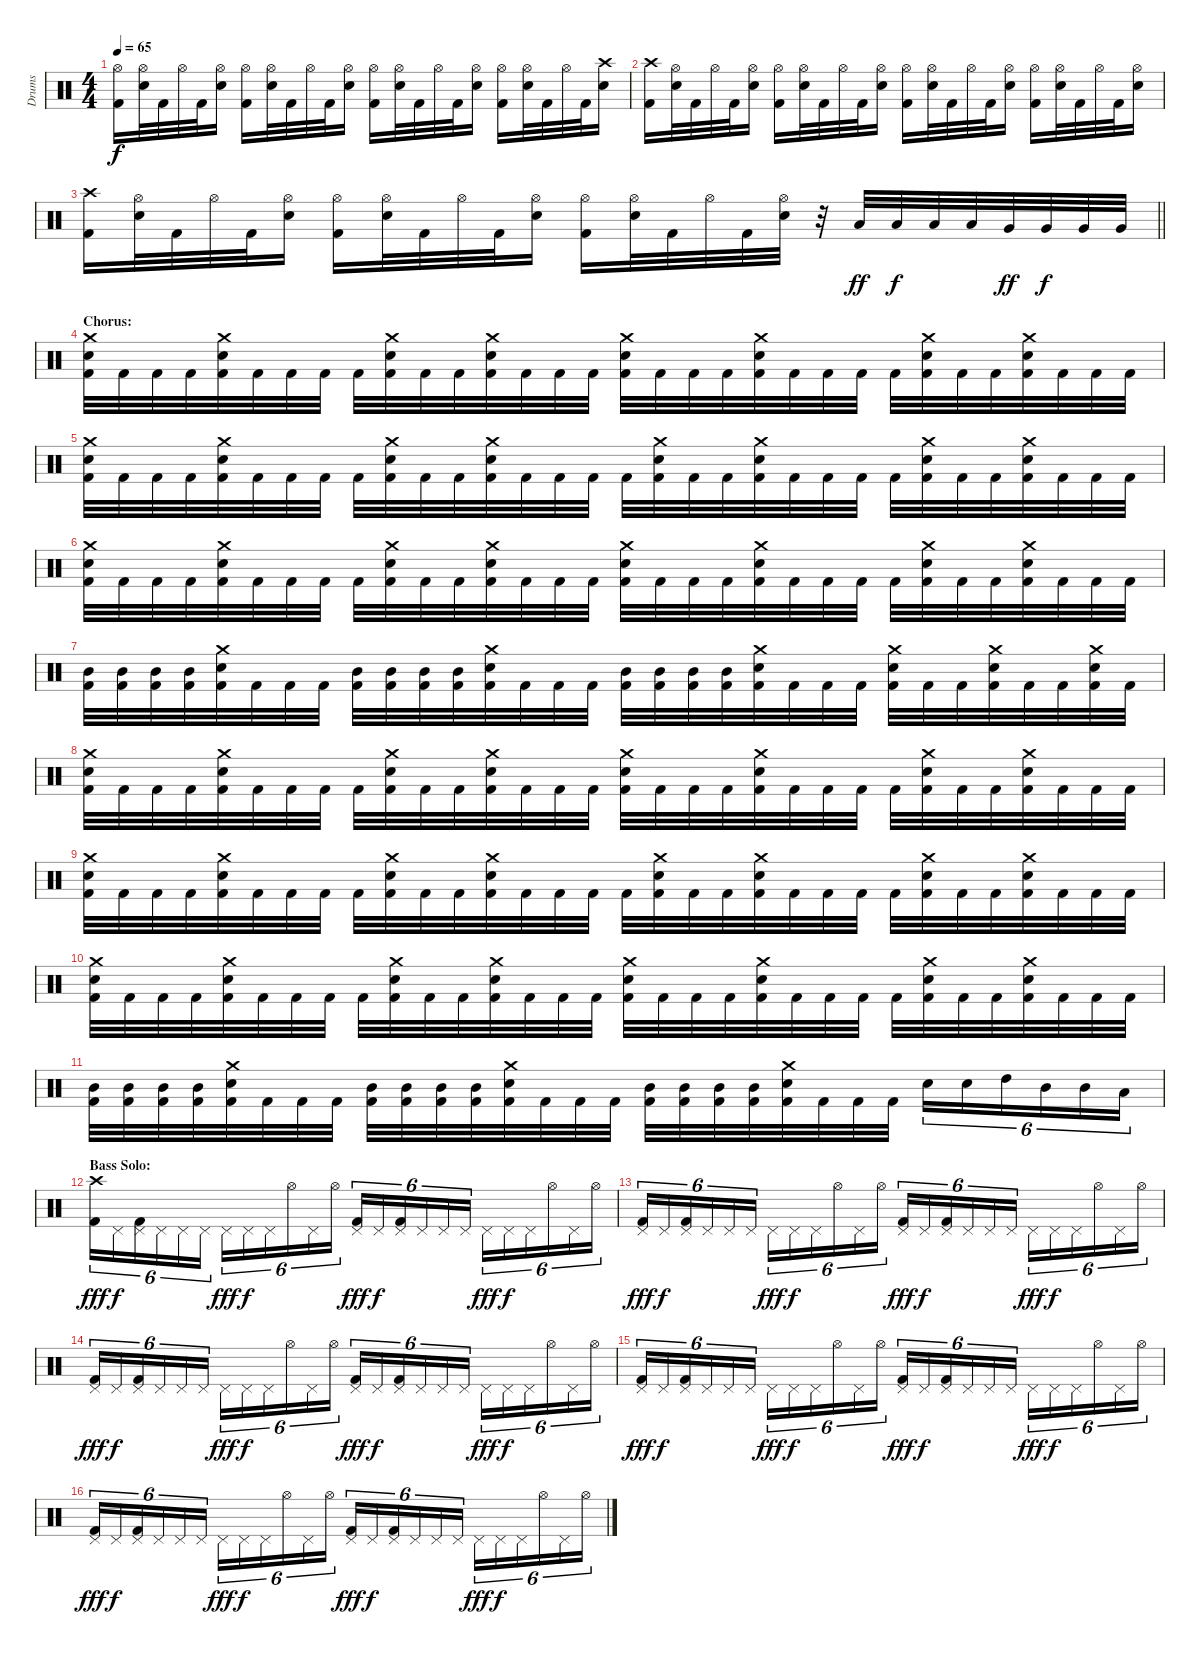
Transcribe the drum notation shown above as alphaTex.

\track ("Drums" "Drums") {instrument percussion}
\staff {score}
\articulation defaults
\ts (4 4)
\tempo 65
\clef neutral
\ks c
("Hi-Hat (open)" "Kick (hit) 2").16{dy f} ("Hi-Hat (open)" "Snare (hit) 2").32 "Kick (hit) 2".32 "Hi-Hat (open)".32 "Kick (hit) 2".32 ("Hi-Hat (open)" "Snare (hit) 2").16 ("Hi-Hat (open)" "Kick (hit) 2").16 ("Hi-Hat (open)" "Snare (hit) 2").32 "Kick (hit) 2".32 "Hi-Hat (open)".32 "Kick (hit) 2".32 ("Hi-Hat (open)" "Snare (hit) 2").16 ("Hi-Hat (open)" "Kick (hit) 2").16 ("Hi-Hat (open)" "Snare (hit) 2").32 "Kick (hit) 2".32 "Hi-Hat (open)".32 "Kick (hit) 2".32 ("Hi-Hat (open)" "Snare (hit) 2").16 ("Hi-Hat (open)" "Kick (hit) 2").16 ("Hi-Hat (open)" "Snare (hit) 2").32 "Kick (hit) 2".32 "Hi-Hat (open)".32 "Kick (hit) 2".32 ("Crash high (hit)" "Snare (hit) 2").16 |
("Crash high (hit)" "Kick (hit) 2").16 ("Hi-Hat (open)" "Snare (hit) 2").32 "Kick (hit) 2".32 "Hi-Hat (open)".32 "Kick (hit) 2".32 ("Hi-Hat (open)" "Snare (hit) 2").16 ("Hi-Hat (open)" "Kick (hit) 2").16 ("Hi-Hat (open)" "Snare (hit) 2").32 "Kick (hit) 2".32 "Hi-Hat (open)".32 "Kick (hit) 2".32 ("Hi-Hat (open)" "Snare (hit) 2").16 ("Hi-Hat (open)" "Kick (hit) 2").16 ("Hi-Hat (open)" "Snare (hit) 2").32 "Kick (hit) 2".32 "Hi-Hat (open)".32 "Kick (hit) 2".32 ("Hi-Hat (open)" "Snare (hit) 2").16 ("Hi-Hat (open)" "Kick (hit) 2").16 ("Hi-Hat (open)" "Snare (hit) 2").32 "Kick (hit) 2".32 "Hi-Hat (open)".32 "Kick (hit) 2".32 ("Hi-Hat (open)" "Snare (hit) 2").16 |
\barLineRight lightlight
("Crash high (hit)" "Kick (hit) 2").16 ("Hi-Hat (open)" "Snare (hit) 2").32 "Kick (hit) 2".32 "Hi-Hat (open)".32 "Kick (hit) 2".32 ("Hi-Hat (open)" "Snare (hit) 2").16 ("Hi-Hat (open)" "Kick (hit) 2").16 ("Hi-Hat (open)" "Snare (hit) 2").32 "Kick (hit) 2".32 "Hi-Hat (open)".32 "Kick (hit) 2".32 ("Hi-Hat (open)" "Snare (hit) 2").16 ("Hi-Hat (open)" "Kick (hit) 2").16 ("Hi-Hat (open)" "Snare (hit) 2").32 "Kick (hit) 2".32 "Hi-Hat (open)".32 "Kick (hit) 2".32 ("Hi-Hat (open)" "Snare (hit) 2").32 r.32 "Low Tom (hit)".32{dy ff} "Low Tom (hit)".32{dy f} "Low Tom (hit)".32 "Low Tom (hit)".32 "Very Low Tom (hit)".32{dy ff} "Very Low Tom (hit)".32{dy f} "Very Low Tom (hit)".32 "Very Low Tom (hit)".32 |
\section ("" "Chorus:")
("Crash medium (hit)" "Snare (hit) 2" "Kick (hit) 2").32 "Kick (hit) 2".32 "Kick (hit) 2".32 "Kick (hit) 2".32 ("Crash medium (hit)" "Snare (hit) 2" "Kick (hit) 2").32 "Kick (hit) 2".32 "Kick (hit) 2".32 "Kick (hit) 2".32 "Kick (hit) 2".32 ("Crash medium (hit)" "Snare (hit) 2" "Kick (hit) 2").32 "Kick (hit) 2".32 "Kick (hit) 2".32 ("Crash medium (hit)" "Snare (hit) 2" "Kick (hit) 2").32 "Kick (hit) 2".32 "Kick (hit) 2".32 "Kick (hit) 2".32 ("Crash medium (hit)" "Snare (hit) 2" "Kick (hit) 2").32 "Kick (hit) 2".32 "Kick (hit) 2".32 "Kick (hit) 2".32 ("Crash medium (hit)" "Snare (hit) 2" "Kick (hit) 2").32 "Kick (hit) 2".32 "Kick (hit) 2".32 "Kick (hit) 2".32 "Kick (hit) 2".32 ("Crash medium (hit)" "Snare (hit) 2" "Kick (hit) 2").32 "Kick (hit) 2".32 "Kick (hit) 2".32 ("Crash medium (hit)" "Snare (hit) 2" "Kick (hit) 2").32 "Kick (hit) 2".32 "Kick (hit) 2".32 "Kick (hit) 2".32 |
("Crash medium (hit)" "Snare (hit) 2" "Kick (hit) 2").32 "Kick (hit) 2".32 "Kick (hit) 2".32 "Kick (hit) 2".32 ("Crash medium (hit)" "Snare (hit) 2" "Kick (hit) 2").32 "Kick (hit) 2".32 "Kick (hit) 2".32 "Kick (hit) 2".32 "Kick (hit) 2".32 ("Crash medium (hit)" "Snare (hit) 2" "Kick (hit) 2").32 "Kick (hit) 2".32 "Kick (hit) 2".32 ("Crash medium (hit)" "Snare (hit) 2" "Kick (hit) 2").32 "Kick (hit) 2".32 "Kick (hit) 2".32 "Kick (hit) 2".32 "Kick (hit) 2".32 ("Crash medium (hit)" "Snare (hit) 2" "Kick (hit) 2").32 "Kick (hit) 2".32 "Kick (hit) 2".32 ("Crash medium (hit)" "Snare (hit) 2" "Kick (hit) 2").32 "Kick (hit) 2".32 "Kick (hit) 2".32 "Kick (hit) 2".32 "Kick (hit) 2".32 ("Crash medium (hit)" "Snare (hit) 2" "Kick (hit) 2").32 "Kick (hit) 2".32 "Kick (hit) 2".32 ("Crash medium (hit)" "Snare (hit) 2" "Kick (hit) 2").32 "Kick (hit) 2".32 "Kick (hit) 2".32 "Kick (hit) 2".32 |
("Crash medium (hit)" "Snare (hit) 2" "Kick (hit) 2").32 "Kick (hit) 2".32 "Kick (hit) 2".32 "Kick (hit) 2".32 ("Crash medium (hit)" "Snare (hit) 2" "Kick (hit) 2").32 "Kick (hit) 2".32 "Kick (hit) 2".32 "Kick (hit) 2".32 "Kick (hit) 2".32 ("Crash medium (hit)" "Snare (hit) 2" "Kick (hit) 2").32 "Kick (hit) 2".32 "Kick (hit) 2".32 ("Crash medium (hit)" "Snare (hit) 2" "Kick (hit) 2").32 "Kick (hit) 2".32 "Kick (hit) 2".32 "Kick (hit) 2".32 ("Crash medium (hit)" "Snare (hit) 2" "Kick (hit) 2").32 "Kick (hit) 2".32 "Kick (hit) 2".32 "Kick (hit) 2".32 ("Crash medium (hit)" "Snare (hit) 2" "Kick (hit) 2").32 "Kick (hit) 2".32 "Kick (hit) 2".32 "Kick (hit) 2".32 "Kick (hit) 2".32 ("Crash medium (hit)" "Snare (hit) 2" "Kick (hit) 2").32 "Kick (hit) 2".32 "Kick (hit) 2".32 ("Crash medium (hit)" "Snare (hit) 2" "Kick (hit) 2").32 "Kick (hit) 2".32 "Kick (hit) 2".32 "Kick (hit) 2".32 |
("Mid Tom (hit)" "Kick (hit) 2").32 ("Mid Tom (hit)" "Kick (hit) 2").32 ("Mid Tom (hit)" "Kick (hit) 2").32 ("Mid Tom (hit)" "Kick (hit) 2").32 ("Crash medium (hit)" "Snare (hit) 2" "Kick (hit) 2").32 "Kick (hit) 2".32 "Kick (hit) 2".32 "Kick (hit) 2".32 ("Mid Tom (hit)" "Kick (hit) 2").32 ("Mid Tom (hit)" "Kick (hit) 2").32 ("Mid Tom (hit)" "Kick (hit) 2").32 ("Mid Tom (hit)" "Kick (hit) 2").32 ("Crash medium (hit)" "Snare (hit) 2" "Kick (hit) 2").32 "Kick (hit) 2".32 "Kick (hit) 2".32 "Kick (hit) 2".32 ("Mid Tom (hit)" "Kick (hit) 2").32 ("Mid Tom (hit)" "Kick (hit) 2").32 ("Mid Tom (hit)" "Kick (hit) 2").32 ("Mid Tom (hit)" "Kick (hit) 2").32 ("Crash medium (hit)" "Snare (hit) 2" "Kick (hit) 2").32 "Kick (hit) 2".32 "Kick (hit) 2".32 "Kick (hit) 2".32 ("Crash medium (hit)" "Snare (hit) 2" "Kick (hit) 2").32 "Kick (hit) 2".32 "Kick (hit) 2".32 ("Crash medium (hit)" "Snare (hit) 2" "Kick (hit) 2").32 "Kick (hit) 2".32 "Kick (hit) 2".32 ("Crash medium (hit)" "Snare (hit) 2" "Kick (hit) 2").32 "Kick (hit) 2".32 |
("Crash medium (hit)" "Snare (hit) 2" "Kick (hit) 2").32 "Kick (hit) 2".32 "Kick (hit) 2".32 "Kick (hit) 2".32 ("Crash medium (hit)" "Snare (hit) 2" "Kick (hit) 2").32 "Kick (hit) 2".32 "Kick (hit) 2".32 "Kick (hit) 2".32 "Kick (hit) 2".32 ("Crash medium (hit)" "Snare (hit) 2" "Kick (hit) 2").32 "Kick (hit) 2".32 "Kick (hit) 2".32 ("Crash medium (hit)" "Snare (hit) 2" "Kick (hit) 2").32 "Kick (hit) 2".32 "Kick (hit) 2".32 "Kick (hit) 2".32 ("Crash medium (hit)" "Snare (hit) 2" "Kick (hit) 2").32 "Kick (hit) 2".32 "Kick (hit) 2".32 "Kick (hit) 2".32 ("Crash medium (hit)" "Snare (hit) 2" "Kick (hit) 2").32 "Kick (hit) 2".32 "Kick (hit) 2".32 "Kick (hit) 2".32 "Kick (hit) 2".32 ("Crash medium (hit)" "Snare (hit) 2" "Kick (hit) 2").32 "Kick (hit) 2".32 "Kick (hit) 2".32 ("Crash medium (hit)" "Snare (hit) 2" "Kick (hit) 2").32 "Kick (hit) 2".32 "Kick (hit) 2".32 "Kick (hit) 2".32 |
("Crash medium (hit)" "Snare (hit) 2" "Kick (hit) 2").32 "Kick (hit) 2".32 "Kick (hit) 2".32 "Kick (hit) 2".32 ("Crash medium (hit)" "Snare (hit) 2" "Kick (hit) 2").32 "Kick (hit) 2".32 "Kick (hit) 2".32 "Kick (hit) 2".32 "Kick (hit) 2".32 ("Crash medium (hit)" "Snare (hit) 2" "Kick (hit) 2").32 "Kick (hit) 2".32 "Kick (hit) 2".32 ("Crash medium (hit)" "Snare (hit) 2" "Kick (hit) 2").32 "Kick (hit) 2".32 "Kick (hit) 2".32 "Kick (hit) 2".32 "Kick (hit) 2".32 ("Crash medium (hit)" "Snare (hit) 2" "Kick (hit) 2").32 "Kick (hit) 2".32 "Kick (hit) 2".32 ("Crash medium (hit)" "Snare (hit) 2" "Kick (hit) 2").32 "Kick (hit) 2".32 "Kick (hit) 2".32 "Kick (hit) 2".32 "Kick (hit) 2".32 ("Crash medium (hit)" "Snare (hit) 2" "Kick (hit) 2").32 "Kick (hit) 2".32 "Kick (hit) 2".32 ("Crash medium (hit)" "Snare (hit) 2" "Kick (hit) 2").32 "Kick (hit) 2".32 "Kick (hit) 2".32 "Kick (hit) 2".32 |
("Crash medium (hit)" "Snare (hit) 2" "Kick (hit) 2").32 "Kick (hit) 2".32 "Kick (hit) 2".32 "Kick (hit) 2".32 ("Crash medium (hit)" "Snare (hit) 2" "Kick (hit) 2").32 "Kick (hit) 2".32 "Kick (hit) 2".32 "Kick (hit) 2".32 "Kick (hit) 2".32 ("Crash medium (hit)" "Snare (hit) 2" "Kick (hit) 2").32 "Kick (hit) 2".32 "Kick (hit) 2".32 ("Crash medium (hit)" "Snare (hit) 2" "Kick (hit) 2").32 "Kick (hit) 2".32 "Kick (hit) 2".32 "Kick (hit) 2".32 ("Crash medium (hit)" "Snare (hit) 2" "Kick (hit) 2").32 "Kick (hit) 2".32 "Kick (hit) 2".32 "Kick (hit) 2".32 ("Crash medium (hit)" "Snare (hit) 2" "Kick (hit) 2").32 "Kick (hit) 2".32 "Kick (hit) 2".32 "Kick (hit) 2".32 "Kick (hit) 2".32 ("Crash medium (hit)" "Snare (hit) 2" "Kick (hit) 2").32 "Kick (hit) 2".32 "Kick (hit) 2".32 ("Crash medium (hit)" "Snare (hit) 2" "Kick (hit) 2").32 "Kick (hit) 2".32 "Kick (hit) 2".32 "Kick (hit) 2".32 |
("Mid Tom (hit)" "Kick (hit) 2").32 ("Mid Tom (hit)" "Kick (hit) 2").32 ("Mid Tom (hit)" "Kick (hit) 2").32 ("Mid Tom (hit)" "Kick (hit) 2").32 ("Crash medium (hit)" "Snare (hit) 2" "Kick (hit) 2").32 "Kick (hit) 2".32 "Kick (hit) 2".32 "Kick (hit) 2".32 ("Mid Tom (hit)" "Kick (hit) 2").32 ("Mid Tom (hit)" "Kick (hit) 2").32 ("Mid Tom (hit)" "Kick (hit) 2").32 ("Mid Tom (hit)" "Kick (hit) 2").32 ("Crash medium (hit)" "Snare (hit) 2" "Kick (hit) 2").32 "Kick (hit) 2".32 "Kick (hit) 2".32 "Kick (hit) 2".32 ("Mid Tom (hit)" "Kick (hit) 2").32 ("Mid Tom (hit)" "Kick (hit) 2").32 ("Mid Tom (hit)" "Kick (hit) 2").32 ("Mid Tom (hit)" "Kick (hit) 2").32 ("Crash medium (hit)" "Snare (hit) 2" "Kick (hit) 2").32 "Kick (hit) 2".32 "Kick (hit) 2".32 "Kick (hit) 2".32 "Snare (hit) 2".16{tu (6 4)} "Snare (hit) 2".16{tu (6 4)} "High Tom (hit)".16{tu (6 4)} "Mid Tom (hit)".16{tu (6 4)} "Mid Tom (hit)".16{tu (6 4)} "Low Tom (hit)".16{tu (6 4)} |
\section ("" "Bass Solo:")
("Crash high (hit)" "Kick (hit) 2").16{tu (6 4) dy fff} "Pedal Hi-Hat (hit)".16{tu (6 4) dy f} ("Pedal Hi-Hat (hit)" "Kick (hit) 2").16{tu (6 4)} "Pedal Hi-Hat (hit)".16{tu (6 4)} "Pedal Hi-Hat (hit)".16{tu (6 4)} "Pedal Hi-Hat (hit)".16{tu (6 4)} "Pedal Hi-Hat (hit)".16{tu (6 4) dy fff} "Pedal Hi-Hat (hit)".16{tu (6 4) dy f} "Pedal Hi-Hat (hit)".16{tu (6 4)} "Hi-Hat (open)".16{tu (6 4)} "Pedal Hi-Hat (hit)".16{tu (6 4)} "Hi-Hat (open)".16{tu (6 4)} ("Pedal Hi-Hat (hit)" "Kick (hit) 2").16{tu (6 4) dy fff} "Pedal Hi-Hat (hit)".16{tu (6 4) dy f} ("Pedal Hi-Hat (hit)" "Kick (hit) 2").16{tu (6 4)} "Pedal Hi-Hat (hit)".16{tu (6 4)} "Pedal Hi-Hat (hit)".16{tu (6 4)} "Pedal Hi-Hat (hit)".16{tu (6 4)} "Pedal Hi-Hat (hit)".16{tu (6 4) dy fff} "Pedal Hi-Hat (hit)".16{tu (6 4) dy f} "Pedal Hi-Hat (hit)".16{tu (6 4)} "Hi-Hat (open)".16{tu (6 4)} "Pedal Hi-Hat (hit)".16{tu (6 4)} "Hi-Hat (open)".16{tu (6 4)} |
("Pedal Hi-Hat (hit)" "Kick (hit) 2").16{tu (6 4) dy fff} "Pedal Hi-Hat (hit)".16{tu (6 4) dy f} ("Pedal Hi-Hat (hit)" "Kick (hit) 2").16{tu (6 4)} "Pedal Hi-Hat (hit)".16{tu (6 4)} "Pedal Hi-Hat (hit)".16{tu (6 4)} "Pedal Hi-Hat (hit)".16{tu (6 4)} "Pedal Hi-Hat (hit)".16{tu (6 4) dy fff} "Pedal Hi-Hat (hit)".16{tu (6 4) dy f} "Pedal Hi-Hat (hit)".16{tu (6 4)} "Hi-Hat (open)".16{tu (6 4)} "Pedal Hi-Hat (hit)".16{tu (6 4)} "Hi-Hat (open)".16{tu (6 4)} ("Pedal Hi-Hat (hit)" "Kick (hit) 2").16{tu (6 4) dy fff} "Pedal Hi-Hat (hit)".16{tu (6 4) dy f} ("Pedal Hi-Hat (hit)" "Kick (hit) 2").16{tu (6 4)} "Pedal Hi-Hat (hit)".16{tu (6 4)} "Pedal Hi-Hat (hit)".16{tu (6 4)} "Pedal Hi-Hat (hit)".16{tu (6 4)} "Pedal Hi-Hat (hit)".16{tu (6 4) dy fff} "Pedal Hi-Hat (hit)".16{tu (6 4) dy f} "Pedal Hi-Hat (hit)".16{tu (6 4)} "Hi-Hat (open)".16{tu (6 4)} "Pedal Hi-Hat (hit)".16{tu (6 4)} "Hi-Hat (open)".16{tu (6 4)} |
("Pedal Hi-Hat (hit)" "Kick (hit) 2").16{tu (6 4) dy fff} "Pedal Hi-Hat (hit)".16{tu (6 4) dy f} ("Pedal Hi-Hat (hit)" "Kick (hit) 2").16{tu (6 4)} "Pedal Hi-Hat (hit)".16{tu (6 4)} "Pedal Hi-Hat (hit)".16{tu (6 4)} "Pedal Hi-Hat (hit)".16{tu (6 4)} "Pedal Hi-Hat (hit)".16{tu (6 4) dy fff} "Pedal Hi-Hat (hit)".16{tu (6 4) dy f} "Pedal Hi-Hat (hit)".16{tu (6 4)} "Hi-Hat (open)".16{tu (6 4)} "Pedal Hi-Hat (hit)".16{tu (6 4)} "Hi-Hat (open)".16{tu (6 4)} ("Pedal Hi-Hat (hit)" "Kick (hit) 2").16{tu (6 4) dy fff} "Pedal Hi-Hat (hit)".16{tu (6 4) dy f} ("Pedal Hi-Hat (hit)" "Kick (hit) 2").16{tu (6 4)} "Pedal Hi-Hat (hit)".16{tu (6 4)} "Pedal Hi-Hat (hit)".16{tu (6 4)} "Pedal Hi-Hat (hit)".16{tu (6 4)} "Pedal Hi-Hat (hit)".16{tu (6 4) dy fff} "Pedal Hi-Hat (hit)".16{tu (6 4) dy f} "Pedal Hi-Hat (hit)".16{tu (6 4)} "Hi-Hat (open)".16{tu (6 4)} "Pedal Hi-Hat (hit)".16{tu (6 4)} "Hi-Hat (open)".16{tu (6 4)} |
("Pedal Hi-Hat (hit)" "Kick (hit) 2").16{tu (6 4) dy fff} "Pedal Hi-Hat (hit)".16{tu (6 4) dy f} ("Pedal Hi-Hat (hit)" "Kick (hit) 2").16{tu (6 4)} "Pedal Hi-Hat (hit)".16{tu (6 4)} "Pedal Hi-Hat (hit)".16{tu (6 4)} "Pedal Hi-Hat (hit)".16{tu (6 4)} "Pedal Hi-Hat (hit)".16{tu (6 4) dy fff} "Pedal Hi-Hat (hit)".16{tu (6 4) dy f} "Pedal Hi-Hat (hit)".16{tu (6 4)} "Hi-Hat (open)".16{tu (6 4)} "Pedal Hi-Hat (hit)".16{tu (6 4)} "Hi-Hat (open)".16{tu (6 4)} ("Pedal Hi-Hat (hit)" "Kick (hit) 2").16{tu (6 4) dy fff} "Pedal Hi-Hat (hit)".16{tu (6 4) dy f} ("Pedal Hi-Hat (hit)" "Kick (hit) 2").16{tu (6 4)} "Pedal Hi-Hat (hit)".16{tu (6 4)} "Pedal Hi-Hat (hit)".16{tu (6 4)} "Pedal Hi-Hat (hit)".16{tu (6 4)} "Pedal Hi-Hat (hit)".16{tu (6 4) dy fff} "Pedal Hi-Hat (hit)".16{tu (6 4) dy f} "Pedal Hi-Hat (hit)".16{tu (6 4)} "Hi-Hat (open)".16{tu (6 4)} "Pedal Hi-Hat (hit)".16{tu (6 4)} "Hi-Hat (open)".16{tu (6 4)} |
("Pedal Hi-Hat (hit)" "Kick (hit) 2").16{tu (6 4) dy fff} "Pedal Hi-Hat (hit)".16{tu (6 4) dy f} ("Pedal Hi-Hat (hit)" "Kick (hit) 2").16{tu (6 4)} "Pedal Hi-Hat (hit)".16{tu (6 4)} "Pedal Hi-Hat (hit)".16{tu (6 4)} "Pedal Hi-Hat (hit)".16{tu (6 4)} "Pedal Hi-Hat (hit)".16{tu (6 4) dy fff} "Pedal Hi-Hat (hit)".16{tu (6 4) dy f} "Pedal Hi-Hat (hit)".16{tu (6 4)} "Hi-Hat (open)".16{tu (6 4)} "Pedal Hi-Hat (hit)".16{tu (6 4)} "Hi-Hat (open)".16{tu (6 4)} ("Pedal Hi-Hat (hit)" "Kick (hit) 2").16{tu (6 4) dy fff} "Pedal Hi-Hat (hit)".16{tu (6 4) dy f} ("Pedal Hi-Hat (hit)" "Kick (hit) 2").16{tu (6 4)} "Pedal Hi-Hat (hit)".16{tu (6 4)} "Pedal Hi-Hat (hit)".16{tu (6 4)} "Pedal Hi-Hat (hit)".16{tu (6 4)} "Pedal Hi-Hat (hit)".16{tu (6 4) dy fff} "Pedal Hi-Hat (hit)".16{tu (6 4) dy f} "Pedal Hi-Hat (hit)".16{tu (6 4)} "Hi-Hat (open)".16{tu (6 4)} "Pedal Hi-Hat (hit)".16{tu (6 4)} "Hi-Hat (open)".16{tu (6 4)}
